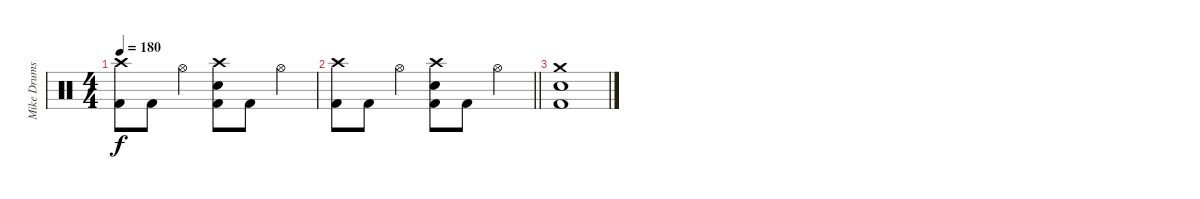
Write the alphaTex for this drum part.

\track ("Mike Drums" "Mike Drums") {instrument percussion}
\staff {score}
\articulation defaults
\ts (4 4)
\tempo 180
\clef neutral
\ks c
("Crash high (hit)" "Kick (hit) 2").8{dy f} "Kick (hit) 2".8 "Hi-Hat (open)".4 ("Crash high (hit)" "Snare (hit) 2" "Kick (hit) 2").8 "Kick (hit) 2".8 "Hi-Hat (open)".4 |
\barLineRight lightlight
("Crash high (hit)" "Kick (hit) 2").8 "Kick (hit) 2".8 "Hi-Hat (open)".4 ("Crash high (hit)" "Snare (hit) 2" "Kick (hit) 2").8 "Kick (hit) 2".8 "Hi-Hat (open)".4 |
("Crash medium (hit)" "Snare (hit) 2" "Kick (hit) 2").1
